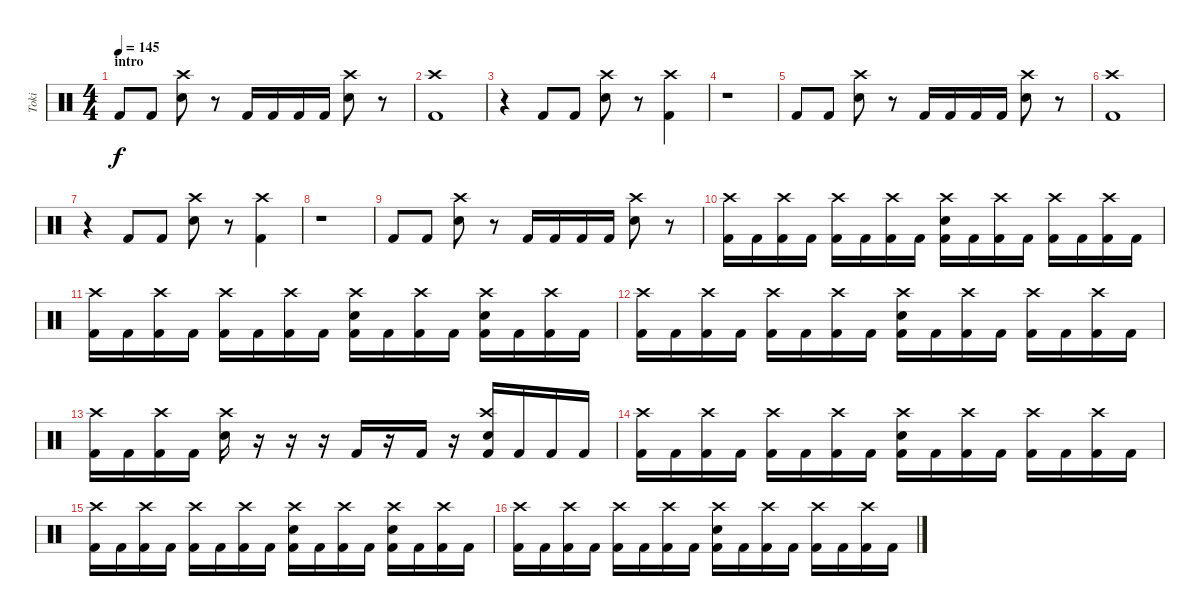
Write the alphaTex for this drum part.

\track ("Toki" "Toki") {instrument percussion}
\staff {score}
\articulation defaults
\ts (4 4)
\section ("" "intro")
\tempo 145
\clef neutral
\ks c "Kick (hit) 2".8{dy f} "Kick (hit) 2".8
("Crash high (hit)" "Electric Snare (hit)").8 r.8 "Kick (hit) 2".16 "Kick (hit) 2".16 "Kick (hit) 2".16 "Kick (hit) 2".16 ("Crash high (hit)" "Electric Snare (hit)").8 r.8 |
("Crash high (hit)" "Kick (hit) 2").1 |
r.4 "Kick (hit) 2".8 "Kick (hit) 2".8 ("Crash high (hit)" "Electric Snare (hit)").8 r.8 ("Crash high (hit)" "Kick (hit) 2").4 |
r.1 |
"Kick (hit) 2".8 "Kick (hit) 2".8 ("Crash high (hit)" "Electric Snare (hit)").8 r.8 "Kick (hit) 2".16 "Kick (hit) 2".16 "Kick (hit) 2".16 "Kick (hit) 2".16 ("Crash high (hit)" "Electric Snare (hit)").8 r.8 |
("Crash high (hit)" "Kick (hit) 2").1 |
r.4 "Kick (hit) 2".8 "Kick (hit) 2".8 ("Crash high (hit)" "Electric Snare (hit)").8 r.8 ("Crash high (hit)" "Kick (hit) 2").4 |
r.1 |
\section ("" "")
"Kick (hit) 2".8 "Kick (hit) 2".8 ("Crash high (hit)" "Electric Snare (hit)").8 r.8 "Kick (hit) 2".16 "Kick (hit) 2".16 "Kick (hit) 2".16 "Kick (hit) 2".16 ("Crash high (hit)" "Electric Snare (hit)").8 r.8 |
("Crash high (hit)" "Kick (hit) 2").16 "Kick (hit) 2".16 ("Crash high (hit)" "Kick (hit) 2").16 "Kick (hit) 2".16 ("Crash high (hit)" "Kick (hit) 2").16 "Kick (hit) 2".16 ("Crash high (hit)" "Kick (hit) 2").16 "Kick (hit) 2".16 ("Crash high (hit)" "Electric Snare (hit)" "Kick (hit) 2").16 "Kick (hit) 2".16 ("Crash high (hit)" "Kick (hit) 2").16 "Kick (hit) 2".16 ("Crash high (hit)" "Kick (hit) 2").16 "Kick (hit) 2".16 ("Crash high (hit)" "Kick (hit) 2").16 "Kick (hit) 2".16 |
("Crash high (hit)" "Kick (hit) 2").16 "Kick (hit) 2".16 ("Crash high (hit)" "Kick (hit) 2").16 "Kick (hit) 2".16 ("Crash high (hit)" "Kick (hit) 2").16 "Kick (hit) 2".16 ("Crash high (hit)" "Kick (hit) 2").16 "Kick (hit) 2".16 ("Crash high (hit)" "Electric Snare (hit)" "Kick (hit) 2").16 "Kick (hit) 2".16 ("Crash high (hit)" "Kick (hit) 2").16 "Kick (hit) 2".16 ("Crash high (hit)" "Electric Snare (hit)" "Kick (hit) 2").16 "Kick (hit) 2".16 ("Crash high (hit)" "Kick (hit) 2").16 "Kick (hit) 2".16 |
("Crash high (hit)" "Kick (hit) 2").16 "Kick (hit) 2".16 ("Crash high (hit)" "Kick (hit) 2").16 "Kick (hit) 2".16 ("Crash high (hit)" "Kick (hit) 2").16 "Kick (hit) 2".16 ("Crash high (hit)" "Kick (hit) 2").16 "Kick (hit) 2".16 ("Crash high (hit)" "Electric Snare (hit)" "Kick (hit) 2").16 "Kick (hit) 2".16 ("Crash high (hit)" "Kick (hit) 2").16 "Kick (hit) 2".16 ("Crash high (hit)" "Kick (hit) 2").16 "Kick (hit) 2".16 ("Crash high (hit)" "Kick (hit) 2").16 "Kick (hit) 2".16 |
("Crash high (hit)" "Kick (hit) 2").16 "Kick (hit) 2".16 ("Crash high (hit)" "Kick (hit) 2").16 "Kick (hit) 2".16 ("Crash high (hit)" "Electric Snare (hit)").16 r.16 r.16 r.16 "Kick (hit) 2".16 r.16 "Kick (hit) 2".16 r.16 ("Crash high (hit)" "Electric Snare (hit)" "Kick (hit) 2").16 "Kick (hit) 2".16 "Kick (hit) 2".16 "Kick (hit) 2".16 |
("Crash high (hit)" "Kick (hit) 2").16 "Kick (hit) 2".16 ("Crash high (hit)" "Kick (hit) 2").16 "Kick (hit) 2".16 ("Crash high (hit)" "Kick (hit) 2").16 "Kick (hit) 2".16 ("Crash high (hit)" "Kick (hit) 2").16 "Kick (hit) 2".16 ("Crash high (hit)" "Electric Snare (hit)" "Kick (hit) 2").16 "Kick (hit) 2".16 ("Crash high (hit)" "Kick (hit) 2").16 "Kick (hit) 2".16 ("Crash high (hit)" "Kick (hit) 2").16 "Kick (hit) 2".16 ("Crash high (hit)" "Kick (hit) 2").16 "Kick (hit) 2".16 |
("Crash high (hit)" "Kick (hit) 2").16 "Kick (hit) 2".16 ("Crash high (hit)" "Kick (hit) 2").16 "Kick (hit) 2".16 ("Crash high (hit)" "Kick (hit) 2").16 "Kick (hit) 2".16 ("Crash high (hit)" "Kick (hit) 2").16 "Kick (hit) 2".16 ("Crash high (hit)" "Electric Snare (hit)" "Kick (hit) 2").16 "Kick (hit) 2".16 ("Crash high (hit)" "Kick (hit) 2").16 "Kick (hit) 2".16 ("Crash high (hit)" "Electric Snare (hit)" "Kick (hit) 2").16 "Kick (hit) 2".16 ("Crash high (hit)" "Kick (hit) 2").16 "Kick (hit) 2".16 |
("Crash high (hit)" "Kick (hit) 2").16 "Kick (hit) 2".16 ("Crash high (hit)" "Kick (hit) 2").16 "Kick (hit) 2".16 ("Crash high (hit)" "Kick (hit) 2").16 "Kick (hit) 2".16 ("Crash high (hit)" "Kick (hit) 2").16 "Kick (hit) 2".16 ("Crash high (hit)" "Electric Snare (hit)" "Kick (hit) 2").16 "Kick (hit) 2".16 ("Crash high (hit)" "Kick (hit) 2").16 "Kick (hit) 2".16 ("Crash high (hit)" "Kick (hit) 2").16 "Kick (hit) 2".16 ("Crash high (hit)" "Kick (hit) 2").16 "Kick (hit) 2".16
